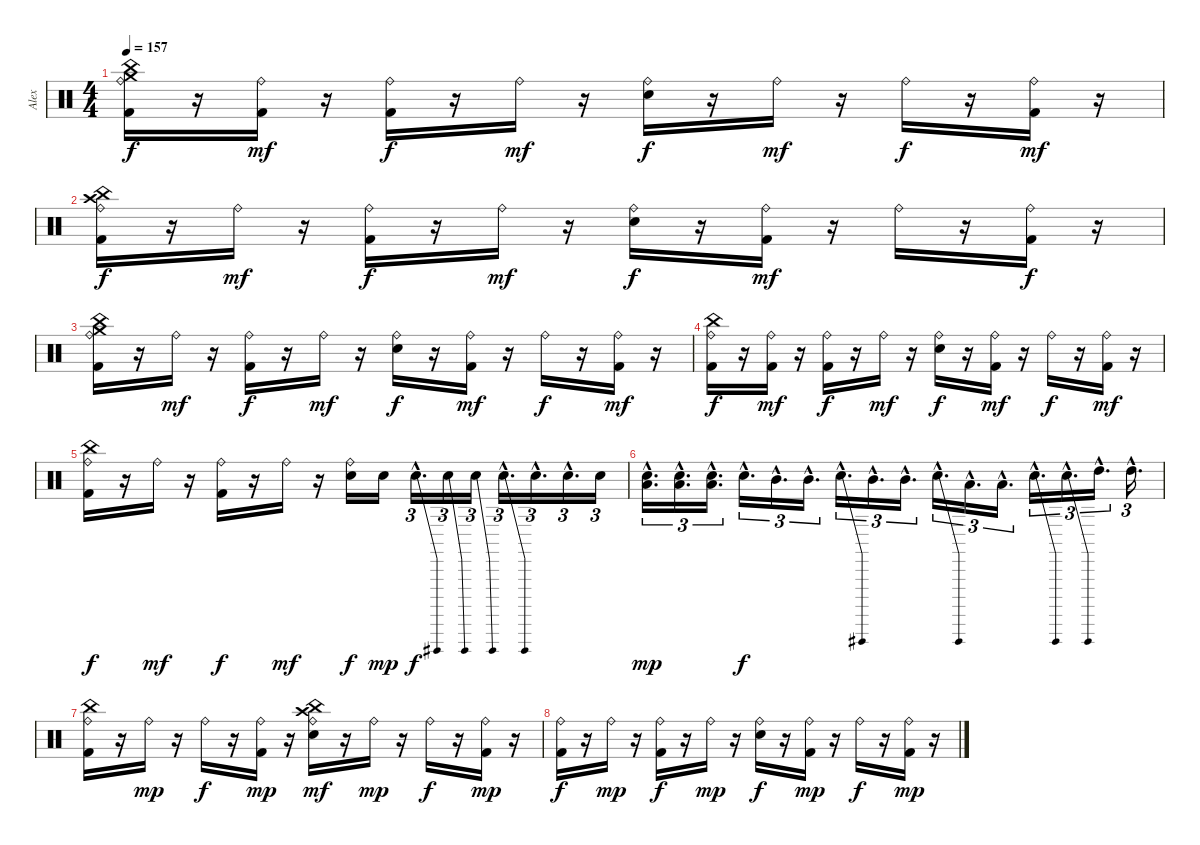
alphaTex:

\track ("Alex" "Alex") {instrument percussion}
\staff {score}
\articulation defaults
\ts (4 4)
\tempo 157
\clef neutral
\ks c
("China (hit)" "Crash medium (hit)" "Ride (bell)" "Kick (hit) 2").16{dy f} r.16 ("Ride (bell)" "Kick (hit) 2").16{dy mf} r.16 ("Ride (bell)" "Kick (hit) 2").16{dy f} r.16 "Ride (bell)".16{dy mf} r.16 ("Ride (bell)" "Electric Snare (hit)").16{dy f} r.16 "Ride (bell)".16{dy mf} r.16 "Ride (bell)".16{dy f} r.16 ("Ride (bell)" "Kick (hit) 2").16{dy mf} r.16 |
("China (hit)" "Crash high (hit)" "Ride (bell)" "Kick (hit) 2").16{dy f} r.16 "Ride (bell)".16{dy mf} r.16 ("Ride (bell)" "Kick (hit) 2").16{dy f} r.16 "Ride (bell)".16{dy mf} r.16 ("Ride (bell)" "Electric Snare (hit)").16{dy f} r.16 ("Ride (bell)" "Kick (hit) 2").16{dy mf} r.16 "Ride (bell)".16 r.16 ("Ride (bell)" "Kick (hit) 2").16{dy f} r.16 |
("China (hit)" "Crash medium (hit)" "Ride (bell)" "Kick (hit) 2").16 r.16 "Ride (bell)".16{dy mf} r.16 ("Ride (bell)" "Kick (hit) 2").16{dy f} r.16 "Ride (bell)".16{dy mf} r.16 ("Ride (bell)" "Electric Snare (hit)").16{dy f} r.16 ("Ride (bell)" "Kick (hit) 2").16{dy mf} r.16 "Ride (bell)".16{dy f} r.16 ("Ride (bell)" "Kick (hit) 2").16{dy mf} r.16 |
("China (hit)" "Ride (bell)" "Kick (hit) 2").16{dy f} r.16 ("Ride (bell)" "Kick (hit) 2").16{dy mf} r.16 ("Ride (bell)" "Kick (hit) 2").16{dy f} r.16 "Ride (bell)".16{dy mf} r.16 ("Ride (bell)" "Electric Snare (hit)").16{dy f} r.16 ("Ride (bell)" "Kick (hit) 2").16{dy mf} r.16 "Ride (bell)".16{dy f} r.16 ("Ride (bell)" "Kick (hit) 2").16{dy mf} r.16 |
("China (hit)" "Ride (bell)" "Kick (hit) 2").16{dy f} r.16 "Ride (bell)".16{dy mf} r.16 ("Ride (bell)" "Kick (hit) 2").16{dy f} r.16 "Ride (bell)".16{dy mf} r.16 ("Ride (bell)" "Electric Snare (hit)").16{dy f} "Electric Snare (hit)".16{dy mp} "Electric Snare (hit)"{be (bend 0 0 60 4) hac}.16{d tu (3 2) dy f} "Electric Snare (hit)"{be (bend 0 0 60 4)}.16{tu (3 2)} "Electric Snare (hit)"{be (bend 0 0 60 4)}.16{tu (3 2)} "Electric Snare (hit)"{be (bend 0 0 60 4) hac}.16{d tu (3 2)} "Electric Snare (hit)"{hac}.16{d tu (3 2)} "Electric Snare (hit)"{hac}.16{d tu (3 2)} "Electric Snare (hit)".16{tu (3 2)} |
("Low Tom (hit)"{hac} "Electric Snare (hit)"{hac}).16{d tu (3 2) dy mp} ("Low Tom (hit)"{hac} "Electric Snare (hit)"{hac}).16{d tu (3 2)} ("Low Tom (hit)"{hac} "Electric Snare (hit)"{hac}).16{d tu (3 2)} "Electric Snare (hit)"{hac}.16{d tu (3 2) dy f} "Mid Tom (hit)"{hac}.16{d tu (3 2)} "Mid Tom (hit)"{hac}.16{d tu (3 2)} "Electric Snare (hit)"{be (bend 0 0 60 12) hac}.16{d tu (3 2)} "Mid Tom (hit)"{hac}.16{d tu (3 2)} "Mid Tom (hit)"{hac}.16{d tu (3 2)} "Electric Snare (hit)"{be (bend 0 0 60 12) hac}.16{d tu (3 2)} "Low Tom (hit)"{hac}.16{d tu (3 2)} "Low Tom (hit)"{hac}.16{d tu (3 2)} "Electric Snare (hit)"{be (bend 0 0 60 12) hac}.16{d tu (3 2)} "Electric Snare (hit)"{be (bend 0 0 60 12) hac}.16{d tu (3 2)} "High Tom (hit)"{hac}.16{d tu (3 2)} "High Tom (hit)"{hac}.16{d tu (3 2)} |
("China (hit)" "Ride (bell)" "Kick (hit) 2").16 r.16 "Ride (bell)".16{dy mp} r.16 "Ride (bell)".16{dy f} r.16 ("Ride (bell)" "Kick (hit) 2").16{dy mp} r.16 ("China (hit)" "Crash high (hit)" "Ride (bell)" "Electric Snare (hit)").16{dy mf} r.16 "Ride (bell)".16{dy mp} r.16 "Ride (bell)".16{dy f} r.16 ("Ride (bell)" "Kick (hit) 2").16{dy mp} r.16 |
("Ride (bell)" "Kick (hit) 2").16{dy f} r.16 "Ride (bell)".16{dy mp} r.16 ("Ride (bell)" "Kick (hit) 2").16{dy f} r.16 "Ride (bell)".16{dy mp} r.16 ("Ride (bell)" "Electric Snare (hit)").16{dy f} r.16 ("Ride (bell)" "Kick (hit) 2").16{dy mp} r.16 "Ride (bell)".16{dy f} r.16 ("Ride (bell)" "Kick (hit) 2").16{dy mp} r.16
